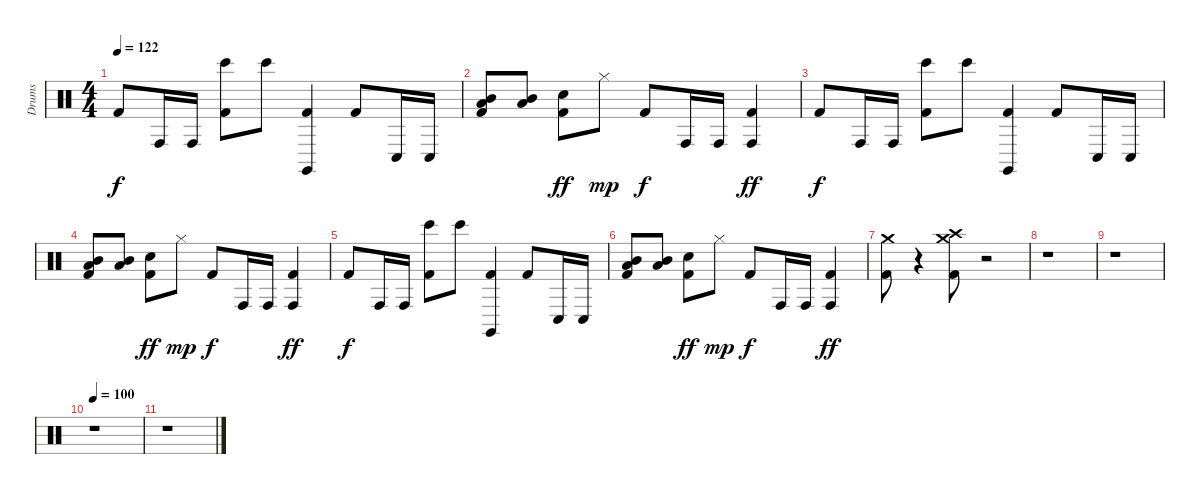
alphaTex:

\track ("Drums" "Drums") {instrument percussion}
\staff {score}
\articulation defaults
\ts (4 4)
\tempo 122
\clef neutral
\ks c "Kick (hit) 2".8{dy f} "Conga high (hit)".16 "Conga high (hit)".16
("Bongo High (hit)" "Kick (hit) 2").8 "Bongo High (hit)".8 ("Kick (hit) 2" "Claves (hit)").4 "Kick (hit) 2".8 "Conga low (hit)".16 "Conga low (hit)".16 |
("Mid Tom (hit)" "Kick (hit) 2" "Low Floor Tom (hit)").8 ("Mid Tom (hit)" "Low Floor Tom (hit)").8 ("Kick (hit) 2" "Snare (hit) 2").8{dy ff} "Hi-Hat (closed)".8{dy mp} "Kick (hit) 2".8{dy f} "Conga high (hit)".16 "Conga high (hit)".16 ("Conga high (hit)" "Kick (hit) 2").4{dy ff} |
"Kick (hit) 2".8{dy f} "Conga high (hit)".16 "Conga high (hit)".16 ("Bongo High (hit)" "Kick (hit) 2").8 "Bongo High (hit)".8 ("Kick (hit) 2" "Claves (hit)").4 "Kick (hit) 2".8 "Conga low (hit)".16 "Conga low (hit)".16 |
("Mid Tom (hit)" "Kick (hit) 2" "Low Floor Tom (hit)").8 ("Mid Tom (hit)" "Low Floor Tom (hit)").8 ("Kick (hit) 2" "Snare (hit) 2").8{dy ff} "Hi-Hat (closed)".8{dy mp} "Kick (hit) 2".8{dy f} "Conga high (hit)".16 "Conga high (hit)".16 ("Conga high (hit)" "Kick (hit) 2").4{dy ff} |
"Kick (hit) 2".8{dy f} "Conga high (hit)".16 "Conga high (hit)".16 ("Bongo High (hit)" "Kick (hit) 2").8 "Bongo High (hit)".8 ("Kick (hit) 2" "Claves (hit)").4 "Kick (hit) 2".8 "Conga low (hit)".16 "Conga low (hit)".16 |
("Mid Tom (hit)" "Kick (hit) 2" "Low Floor Tom (hit)").8 ("Mid Tom (hit)" "Low Floor Tom (hit)").8 ("Kick (hit) 2" "Snare (hit) 2").8{dy ff} "Hi-Hat (closed)".8{dy mp} "Kick (hit) 2".8{dy f} "Conga high (hit)".16 "Conga high (hit)".16 ("Conga high (hit)" "Kick (hit) 2").4{dy ff} |
("Crash medium (hit)" "Kick (hit) 2").8 r.4 ("Crash high (hit)" "Crash medium (hit)" "Kick (hit) 2").8 r.2 |
r.1 |
r.1 |
\tempo 100
r.1 |
r.1
